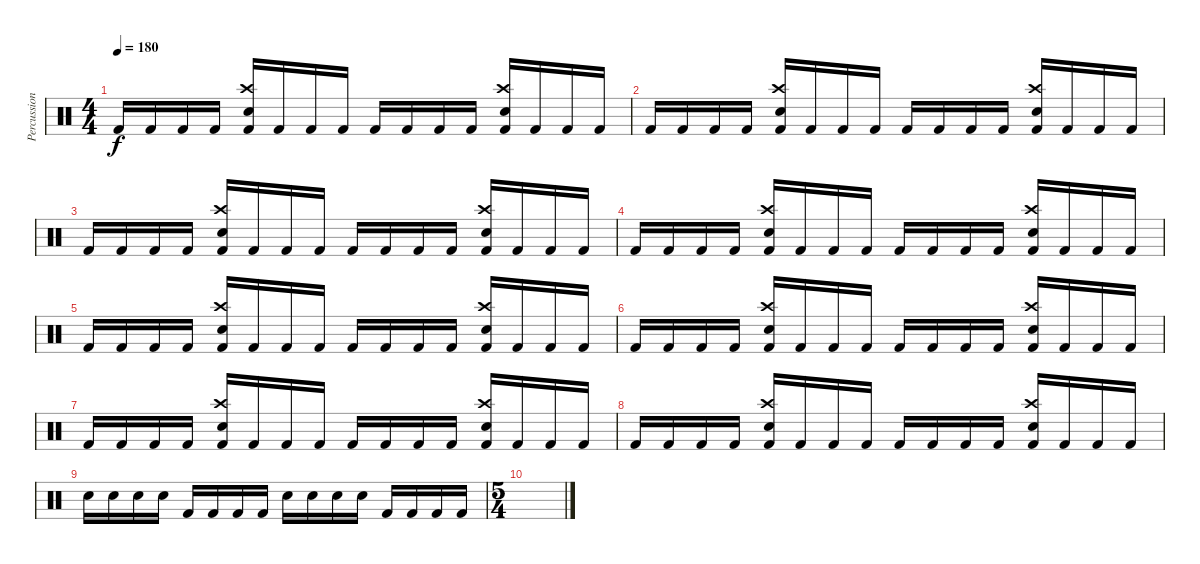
\track ("Percussion" "Percussion") {instrument percussion}
\staff {score}
\articulation defaults
\ts (4 4)
\tempo 180
\clef neutral
\ks c "Kick (hit) 2".16{dy f} "Kick (hit) 2".16 "Kick (hit) 2".16 "Kick (hit) 2".16
("Crash high (hit)" "Kick (hit) 2" "Snare (hit) 2").16 "Kick (hit) 2".16 "Kick (hit) 2".16 "Kick (hit) 2".16 "Kick (hit) 2".16 "Kick (hit) 2".16 "Kick (hit) 2".16 "Kick (hit) 2".16 ("Crash high (hit)" "Kick (hit) 2" "Snare (hit) 2").16 "Kick (hit) 2".16 "Kick (hit) 2".16 "Kick (hit) 2".16 |
"Kick (hit) 2".16 "Kick (hit) 2".16 "Kick (hit) 2".16 "Kick (hit) 2".16 ("Crash high (hit)" "Kick (hit) 2" "Snare (hit) 2").16 "Kick (hit) 2".16 "Kick (hit) 2".16 "Kick (hit) 2".16 "Kick (hit) 2".16 "Kick (hit) 2".16 "Kick (hit) 2".16 "Kick (hit) 2".16 ("Crash high (hit)" "Kick (hit) 2" "Snare (hit) 2").16 "Kick (hit) 2".16 "Kick (hit) 2".16 "Kick (hit) 2".16 |
"Kick (hit) 2".16 "Kick (hit) 2".16 "Kick (hit) 2".16 "Kick (hit) 2".16 ("Crash high (hit)" "Kick (hit) 2" "Snare (hit) 2").16 "Kick (hit) 2".16 "Kick (hit) 2".16 "Kick (hit) 2".16 "Kick (hit) 2".16 "Kick (hit) 2".16 "Kick (hit) 2".16 "Kick (hit) 2".16 ("Crash high (hit)" "Kick (hit) 2" "Snare (hit) 2").16 "Kick (hit) 2".16 "Kick (hit) 2".16 "Kick (hit) 2".16 |
"Kick (hit) 2".16 "Kick (hit) 2".16 "Kick (hit) 2".16 "Kick (hit) 2".16 ("Crash high (hit)" "Kick (hit) 2" "Snare (hit) 2").16 "Kick (hit) 2".16 "Kick (hit) 2".16 "Kick (hit) 2".16 "Kick (hit) 2".16 "Kick (hit) 2".16 "Kick (hit) 2".16 "Kick (hit) 2".16 ("Crash high (hit)" "Kick (hit) 2" "Snare (hit) 2").16 "Kick (hit) 2".16 "Kick (hit) 2".16 "Kick (hit) 2".16 |
"Kick (hit) 2".16 "Kick (hit) 2".16 "Kick (hit) 2".16 "Kick (hit) 2".16 ("Crash high (hit)" "Kick (hit) 2" "Snare (hit) 2").16 "Kick (hit) 2".16 "Kick (hit) 2".16 "Kick (hit) 2".16 "Kick (hit) 2".16 "Kick (hit) 2".16 "Kick (hit) 2".16 "Kick (hit) 2".16 ("Crash high (hit)" "Kick (hit) 2" "Snare (hit) 2").16 "Kick (hit) 2".16 "Kick (hit) 2".16 "Kick (hit) 2".16 |
"Kick (hit) 2".16 "Kick (hit) 2".16 "Kick (hit) 2".16 "Kick (hit) 2".16 ("Crash high (hit)" "Kick (hit) 2" "Snare (hit) 2").16 "Kick (hit) 2".16 "Kick (hit) 2".16 "Kick (hit) 2".16 "Kick (hit) 2".16 "Kick (hit) 2".16 "Kick (hit) 2".16 "Kick (hit) 2".16 ("Crash high (hit)" "Kick (hit) 2" "Snare (hit) 2").16 "Kick (hit) 2".16 "Kick (hit) 2".16 "Kick (hit) 2".16 |
"Kick (hit) 2".16 "Kick (hit) 2".16 "Kick (hit) 2".16 "Kick (hit) 2".16 ("Crash high (hit)" "Kick (hit) 2" "Snare (hit) 2").16 "Kick (hit) 2".16 "Kick (hit) 2".16 "Kick (hit) 2".16 "Kick (hit) 2".16 "Kick (hit) 2".16 "Kick (hit) 2".16 "Kick (hit) 2".16 ("Crash high (hit)" "Kick (hit) 2" "Snare (hit) 2").16 "Kick (hit) 2".16 "Kick (hit) 2".16 "Kick (hit) 2".16 |
"Kick (hit) 2".16 "Kick (hit) 2".16 "Kick (hit) 2".16 "Kick (hit) 2".16 ("Crash high (hit)" "Kick (hit) 2" "Snare (hit) 2").16 "Kick (hit) 2".16 "Kick (hit) 2".16 "Kick (hit) 2".16 "Kick (hit) 2".16 "Kick (hit) 2".16 "Kick (hit) 2".16 "Kick (hit) 2".16 ("Crash high (hit)" "Kick (hit) 2" "Snare (hit) 2").16 "Kick (hit) 2".16 "Kick (hit) 2".16 "Kick (hit) 2".16 |
"Electric Snare (hit)".16 "Electric Snare (hit)".16 "Electric Snare (hit)".16 "Electric Snare (hit)".16 "Kick (hit) 2".16 "Kick (hit) 2".16 "Kick (hit) 2".16 "Kick (hit) 2".16 "Snare (hit) 2".16 "Snare (hit) 2".16 "Snare (hit) 2".16 "Snare (hit) 2".16 "Kick (hit) 2".16 "Kick (hit) 2".16 "Kick (hit) 2".16 "Kick (hit) 2".16 |
\ts (5 4)
